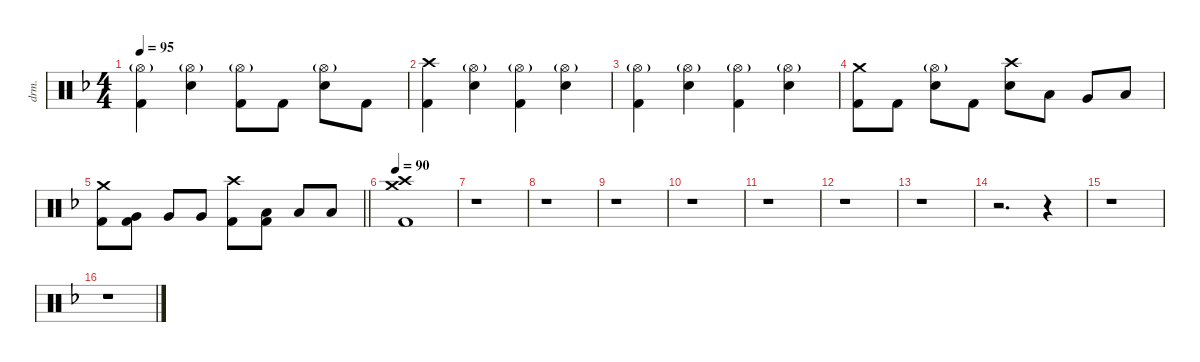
\defaultSystemsLayout 4
\hideDynamics
\bracketExtendMode nobrackets
\track ("Jukka" "drm.") {instrument percussion}
\staff {score}
\articulation defaults
\ts (4 4)
\tempo 95
\clef neutral
\ks f
("Hi-Hat (open)"{g acc forcenatural} "Kick (hit) 2"{acc forcenatural}).4{dy f} ("Hi-Hat (open)"{g acc forcenatural} "Snare (hit) 2"{acc forcenatural}).4 ("Hi-Hat (open)"{g acc forcenatural} "Kick (hit) 2"{acc forcenatural}).8 "Kick (hit) 2"{acc forcenatural}.8{dy mf} ("Hi-Hat (open)"{g acc forcenatural} "Snare (hit) 2"{acc forcenatural}).8{dy f} "Kick (hit) 2"{acc forcenatural}.8{dy mf} |
("Crash high (hit)"{acc forcenatural} "Kick (hit) 2"{acc forcenatural}).4{dy f} ("Hi-Hat (open)"{g acc forcenatural} "Snare (hit) 2"{acc forcenatural}).4 ("Hi-Hat (open)"{g acc forcenatural} "Kick (hit) 2"{acc forcenatural}).4 ("Hi-Hat (open)"{g acc forcenatural} "Snare (hit) 2"{acc forcenatural}).4 |
("Hi-Hat (open)"{g acc forcenatural} "Kick (hit) 2"{acc forcenatural}).4 ("Hi-Hat (open)"{g acc forcenatural} "Snare (hit) 2"{acc forcenatural}).4 ("Hi-Hat (open)"{g acc forcenatural} "Kick (hit) 2"{acc forcenatural}).4 ("Hi-Hat (open)"{g acc forcenatural} "Snare (hit) 2"{acc forcenatural}).4 |
("Crash medium (hit)"{acc forcenatural} "Kick (hit) 2"{acc forcenatural}).8 "Kick (hit) 2"{acc forcenatural}.8 ("Hi-Hat (open)"{g acc forcenatural} "Snare (hit) 2"{acc forcenatural}).8 "Kick (hit) 2"{acc forcenatural}.8 ("Crash high (hit)"{acc forcenatural} "Snare (hit) 2"{acc forcenatural}).8 "Low Tom (hit)"{acc forcenatural}.8 "Very Low Tom (hit)"{acc forcenatural}.8 "Low Floor Tom (hit)"{acc forcenatural}.8 |
\barLineRight lightlight
("Crash medium (hit)"{acc forcenatural} "Kick (hit) 2"{acc forcenatural}).8{dy mf} ("Very Low Tom (hit)"{acc forcenatural} "Kick (hit) 2"{acc forcenatural}).8{dy f} "Very Low Tom (hit)"{acc forcenatural}.8 "Very Low Tom (hit)"{acc forcenatural}.8 ("Crash high (hit)"{acc forcenatural} "Kick (hit) 2"{acc forcenatural}).8 ("Low Floor Tom (hit)"{acc forcenatural} "Kick (hit) 2"{acc forcenatural}).8 "Low Floor Tom (hit)"{acc forcenatural}.8 "Low Floor Tom (hit)"{acc forcenatural}.8 |
\tempo 90
("Crash medium (hit)"{acc forcenatural} "Crash high (hit)"{acc forcenatural} "Kick (hit) 2"{acc forcenatural}).1{dy mp} |
r.1 |
r.1 |
\tempo (85 0.625 hide)
r.1 |
\tempo (90 hide)
r.1 |
r.1 |
r.1 |
\tempo (80 hide)
r.1 |
\tempo (60 hide)
r.2{d} r.4 |
\tempo (80 hide)
r.1 |
r.1
